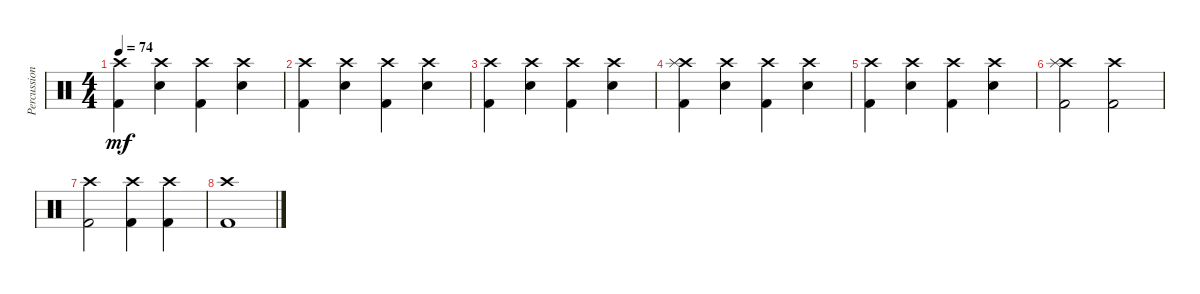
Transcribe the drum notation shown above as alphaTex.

\track ("Percussions" "Percussion") {instrument percussion}
\staff {score}
\articulation defaults
\ts (4 4)
\tempo 74
\clef neutral
\ks c
("Crash high (hit)" "Kick (hit) 2").4{dy mf} ("Crash high (hit)" "Electric Snare (hit)").4 ("Crash high (hit)" "Kick (hit) 2").4 ("Crash high (hit)" "Electric Snare (hit)").4 |
("Crash high (hit)" "Kick (hit) 2").4 ("Crash high (hit)" "Electric Snare (hit)").4 ("Crash high (hit)" "Kick (hit) 2").4 ("Crash high (hit)" "Electric Snare (hit)").4 |
("Crash high (hit)" "Kick (hit) 2").4 ("Crash high (hit)" "Electric Snare (hit)").4 ("Crash high (hit)" "Kick (hit) 2").4 ("Crash high (hit)" "Electric Snare (hit)").4 |
("Crash high (hit)" "Kick (hit) 2" "Splash (hit)").4 ("Crash high (hit)" "Electric Snare (hit)").4 ("Crash high (hit)" "Kick (hit) 2").4 ("Crash high (hit)" "Electric Snare (hit)").4 |
("Crash high (hit)" "Kick (hit) 2").4 ("Crash high (hit)" "Electric Snare (hit)").4 ("Crash high (hit)" "Kick (hit) 2").4 ("Crash high (hit)" "Electric Snare (hit)").4 |
("Crash high (hit)" "Kick (hit) 2" "Splash (hit)").2 ("Crash high (hit)" "Kick (hit) 2").2 |
("Crash high (hit)" "Kick (hit) 2").2 ("Crash high (hit)" "Kick (hit) 2").4 ("Crash high (hit)" "Kick (hit) 2").4 |
("Crash high (hit)" "Kick (hit) 2").1
